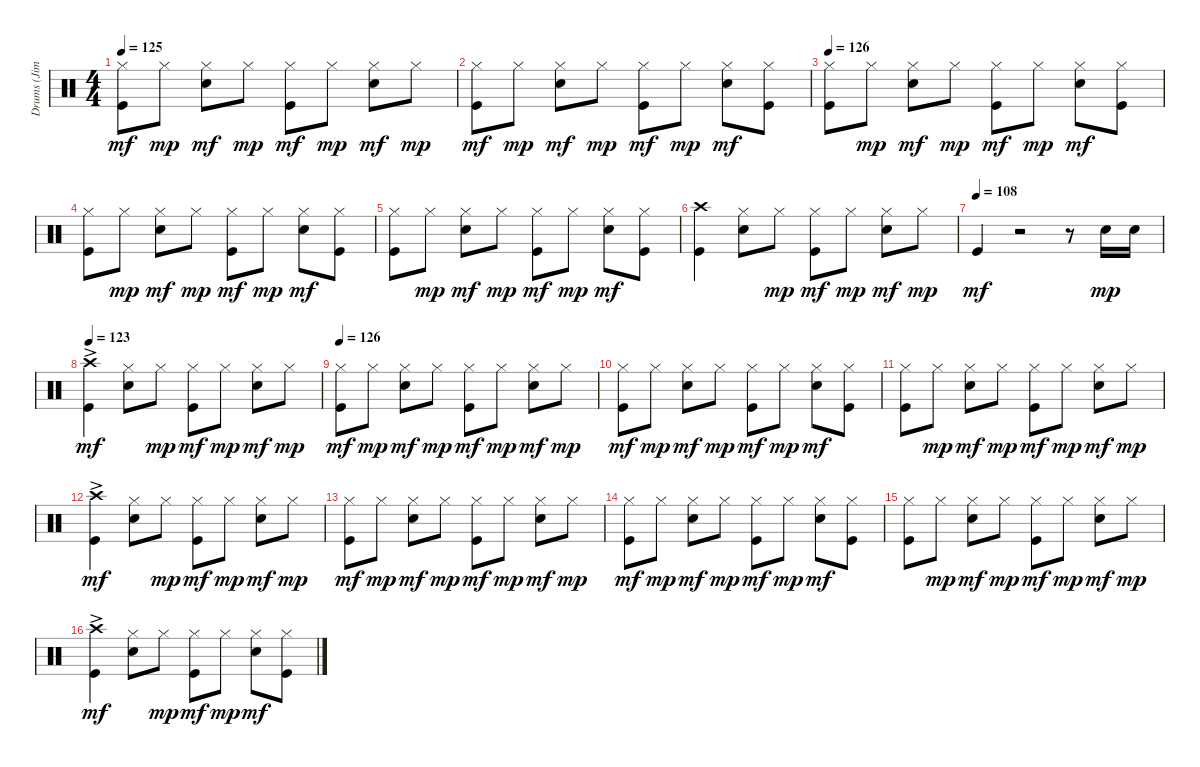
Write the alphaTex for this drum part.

\track ("Drums (Jim Keltner)" "Drums (Jim") {instrument percussion}
\staff {score}
\articulation defaults
\ts (4 4)
\tempo 125
\clef neutral
\ks c
("Hi-Hat (closed)" "Kick (hit)").8{dy mf} "Hi-Hat (closed)".8{dy mp} ("Hi-Hat (closed)" "Snare (hit) 2").8{dy mf} "Hi-Hat (closed)".8{dy mp} ("Hi-Hat (closed)" "Kick (hit)").8{dy mf} "Hi-Hat (closed)".8{dy mp} ("Hi-Hat (closed)" "Snare (hit) 2").8{dy mf} "Hi-Hat (closed)".8{dy mp} |
("Hi-Hat (closed)" "Kick (hit)").8{dy mf} "Hi-Hat (closed)".8{dy mp} ("Hi-Hat (closed)" "Snare (hit) 2").8{dy mf} "Hi-Hat (closed)".8{dy mp} ("Hi-Hat (closed)" "Kick (hit)").8{dy mf} "Hi-Hat (closed)".8{dy mp} ("Hi-Hat (closed)" "Snare (hit) 2").8{dy mf} ("Hi-Hat (closed)" "Kick (hit)").8 |
\tempo 126
("Hi-Hat (closed)" "Kick (hit)").8 "Hi-Hat (closed)".8{dy mp} ("Hi-Hat (closed)" "Snare (hit) 2").8{dy mf} "Hi-Hat (closed)".8{dy mp} ("Hi-Hat (closed)" "Kick (hit)").8{dy mf} "Hi-Hat (closed)".8{dy mp} ("Hi-Hat (closed)" "Snare (hit) 2").8{dy mf} ("Hi-Hat (closed)" "Kick (hit)").8 |
("Hi-Hat (closed)" "Kick (hit)").8 "Hi-Hat (closed)".8{dy mp} ("Hi-Hat (closed)" "Snare (hit) 2").8{dy mf} "Hi-Hat (closed)".8{dy mp} ("Hi-Hat (closed)" "Kick (hit)").8{dy mf} "Hi-Hat (closed)".8{dy mp} ("Hi-Hat (closed)" "Snare (hit) 2").8{dy mf} ("Hi-Hat (closed)" "Kick (hit)").8 |
("Hi-Hat (closed)" "Kick (hit)").8 "Hi-Hat (closed)".8{dy mp} ("Hi-Hat (closed)" "Snare (hit) 2").8{dy mf} "Hi-Hat (closed)".8{dy mp} ("Hi-Hat (closed)" "Kick (hit)").8{dy mf} "Hi-Hat (closed)".8{dy mp} ("Hi-Hat (closed)" "Snare (hit) 2").8{dy mf} ("Hi-Hat (closed)" "Kick (hit)").8 |
("Crash high (hit)" "Kick (hit)").4 ("Hi-Hat (closed)" "Snare (hit) 2").8 "Hi-Hat (closed)".8{dy mp} ("Hi-Hat (closed)" "Kick (hit)").8{dy mf} "Hi-Hat (closed)".8{dy mp} ("Hi-Hat (closed)" "Snare (hit) 2").8{dy mf} "Hi-Hat (closed)".8{dy mp} |
\tempo (108)
"Kick (hit)".4{dy mf} r.2 r.8 "Snare (hit) 2".16{dy mp} "Snare (hit) 2".16 |
\tempo 123
("Crash high (hit)"{ac} "Kick (hit)").4{dy mf} ("Hi-Hat (closed)" "Snare (hit) 2").8 "Hi-Hat (closed)".8{dy mp} ("Hi-Hat (closed)" "Kick (hit)").8{dy mf} "Hi-Hat (closed)".8{dy mp} ("Hi-Hat (closed)" "Snare (hit) 2").8{dy mf} "Hi-Hat (closed)".8{dy mp} |
\tempo 126
("Hi-Hat (closed)" "Kick (hit)").8{dy mf} "Hi-Hat (closed)".8{dy mp} ("Hi-Hat (closed)" "Snare (hit) 2").8{dy mf} "Hi-Hat (closed)".8{dy mp} ("Hi-Hat (closed)" "Kick (hit)").8{dy mf} "Hi-Hat (closed)".8{dy mp} ("Hi-Hat (closed)" "Snare (hit) 2").8{dy mf} "Hi-Hat (closed)".8{dy mp} |
("Hi-Hat (closed)" "Kick (hit)").8{dy mf} "Hi-Hat (closed)".8{dy mp} ("Hi-Hat (closed)" "Snare (hit) 2").8{dy mf} "Hi-Hat (closed)".8{dy mp} ("Hi-Hat (closed)" "Kick (hit)").8{dy mf} "Hi-Hat (closed)".8{dy mp} ("Hi-Hat (closed)" "Snare (hit) 2").8{dy mf} ("Hi-Hat (closed)" "Kick (hit)").8 |
("Hi-Hat (closed)" "Kick (hit)").8 "Hi-Hat (closed)".8{dy mp} ("Hi-Hat (closed)" "Snare (hit) 2").8{dy mf} "Hi-Hat (closed)".8{dy mp} ("Hi-Hat (closed)" "Kick (hit)").8{dy mf} "Hi-Hat (closed)".8{dy mp} ("Hi-Hat (closed)" "Snare (hit) 2").8{dy mf} "Hi-Hat (closed)".8{dy mp} |
("Crash high (hit)"{ac} "Kick (hit)").4{dy mf} ("Hi-Hat (closed)" "Snare (hit) 2").8 "Hi-Hat (closed)".8{dy mp} ("Hi-Hat (closed)" "Kick (hit)").8{dy mf} "Hi-Hat (closed)".8{dy mp} ("Hi-Hat (closed)" "Snare (hit) 2").8{dy mf} "Hi-Hat (closed)".8{dy mp} |
("Hi-Hat (closed)" "Kick (hit)").8{dy mf} "Hi-Hat (closed)".8{dy mp} ("Hi-Hat (closed)" "Snare (hit) 2").8{dy mf} "Hi-Hat (closed)".8{dy mp} ("Hi-Hat (closed)" "Kick (hit)").8{dy mf} "Hi-Hat (closed)".8{dy mp} ("Hi-Hat (closed)" "Snare (hit) 2").8{dy mf} "Hi-Hat (closed)".8{dy mp} |
("Hi-Hat (closed)" "Kick (hit)").8{dy mf} "Hi-Hat (closed)".8{dy mp} ("Hi-Hat (closed)" "Snare (hit) 2").8{dy mf} "Hi-Hat (closed)".8{dy mp} ("Hi-Hat (closed)" "Kick (hit)").8{dy mf} "Hi-Hat (closed)".8{dy mp} ("Hi-Hat (closed)" "Snare (hit) 2").8{dy mf} ("Hi-Hat (closed)" "Kick (hit)").8 |
("Hi-Hat (closed)" "Kick (hit)").8 "Hi-Hat (closed)".8{dy mp} ("Hi-Hat (closed)" "Snare (hit) 2").8{dy mf} "Hi-Hat (closed)".8{dy mp} ("Hi-Hat (closed)" "Kick (hit)").8{dy mf} "Hi-Hat (closed)".8{dy mp} ("Hi-Hat (closed)" "Snare (hit) 2").8{dy mf} "Hi-Hat (closed)".8{dy mp} |
("Crash high (hit)"{ac} "Kick (hit)").4{dy mf} ("Hi-Hat (closed)" "Snare (hit) 2").8 "Hi-Hat (closed)".8{dy mp} ("Hi-Hat (closed)" "Kick (hit)").8{dy mf} "Hi-Hat (closed)".8{dy mp} ("Hi-Hat (closed)" "Snare (hit) 2").8{dy mf} ("Hi-Hat (closed)" "Kick (hit)").8
